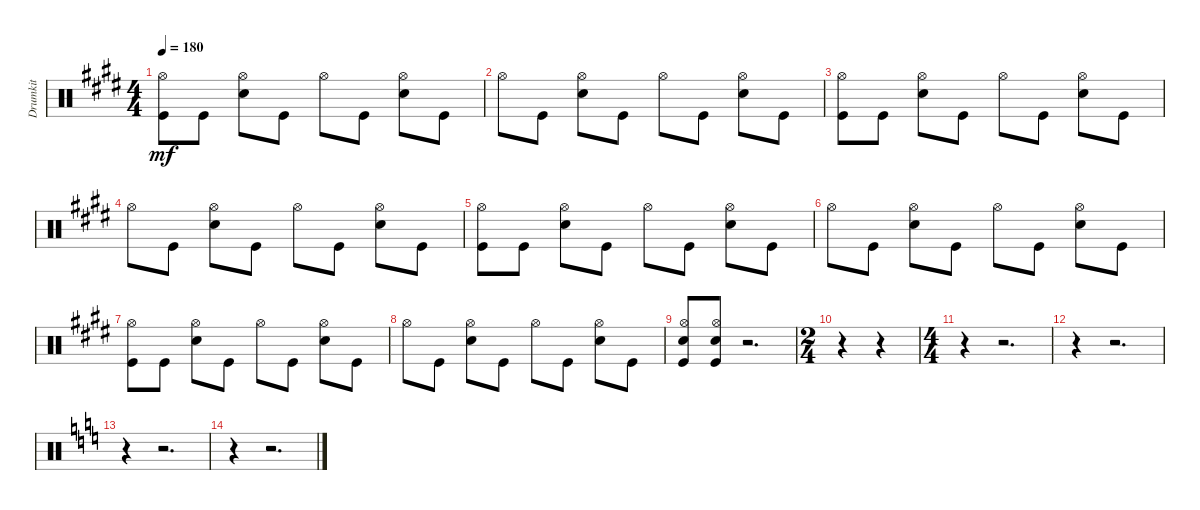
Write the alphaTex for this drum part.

\track ("Drumkit" "Drumkit") {instrument percussion}
\staff {score}
\articulation defaults
\ts (4 4)
\tempo 180
\clef neutral
\ks e
("Kick (hit)" "Hi-Hat (open)").8{dy mf} "Kick (hit)".8 ("Snare (hit) 2" "Hi-Hat (open)").8 "Kick (hit)".8 "Hi-Hat (open)".8 "Kick (hit)".8 ("Snare (hit) 2" "Hi-Hat (open)").8 "Kick (hit)".8 |
"Hi-Hat (open)".8 "Kick (hit)".8 ("Snare (hit) 2" "Hi-Hat (open)").8 "Kick (hit)".8 "Hi-Hat (open)".8 "Kick (hit)".8 ("Snare (hit) 2" "Hi-Hat (open)").8 "Kick (hit)".8 |
("Kick (hit)" "Hi-Hat (open)").8 "Kick (hit)".8 ("Snare (hit) 2" "Hi-Hat (open)").8 "Kick (hit)".8 "Hi-Hat (open)".8 "Kick (hit)".8 ("Snare (hit) 2" "Hi-Hat (open)").8 "Kick (hit)".8 |
"Hi-Hat (open)".8 "Kick (hit)".8 ("Snare (hit) 2" "Hi-Hat (open)").8 "Kick (hit)".8 "Hi-Hat (open)".8 "Kick (hit)".8 ("Snare (hit) 2" "Hi-Hat (open)").8 "Kick (hit)".8 |
("Kick (hit)" "Hi-Hat (open)").8 "Kick (hit)".8 ("Snare (hit) 2" "Hi-Hat (open)").8 "Kick (hit)".8 "Hi-Hat (open)".8 "Kick (hit)".8 ("Snare (hit) 2" "Hi-Hat (open)").8 "Kick (hit)".8 |
"Hi-Hat (open)".8 "Kick (hit)".8 ("Snare (hit) 2" "Hi-Hat (open)").8 "Kick (hit)".8 "Hi-Hat (open)".8 "Kick (hit)".8 ("Snare (hit) 2" "Hi-Hat (open)").8 "Kick (hit)".8 |
("Kick (hit)" "Hi-Hat (open)").8 "Kick (hit)".8 ("Snare (hit) 2" "Hi-Hat (open)").8 "Kick (hit)".8 "Hi-Hat (open)".8 "Kick (hit)".8 ("Snare (hit) 2" "Hi-Hat (open)").8 "Kick (hit)".8 |
"Hi-Hat (open)".8 "Kick (hit)".8 ("Snare (hit) 2" "Hi-Hat (open)").8 "Kick (hit)".8 "Hi-Hat (open)".8 "Kick (hit)".8 ("Snare (hit) 2" "Hi-Hat (open)").8 "Kick (hit)".8 |
("Kick (hit)" "Hi-Hat (open)" "Snare (hit) 2").8 ("Hi-Hat (open)" "Kick (hit)" "Snare (hit) 2").8 r.2{d} |
\ts (2 4)
r.4 r.4 |
\ts (4 4)
r.4 r.2{d} |
r.4 r.2{d} |
\ks c
r.4 r.2{d} |
r.4 r.2{d}
